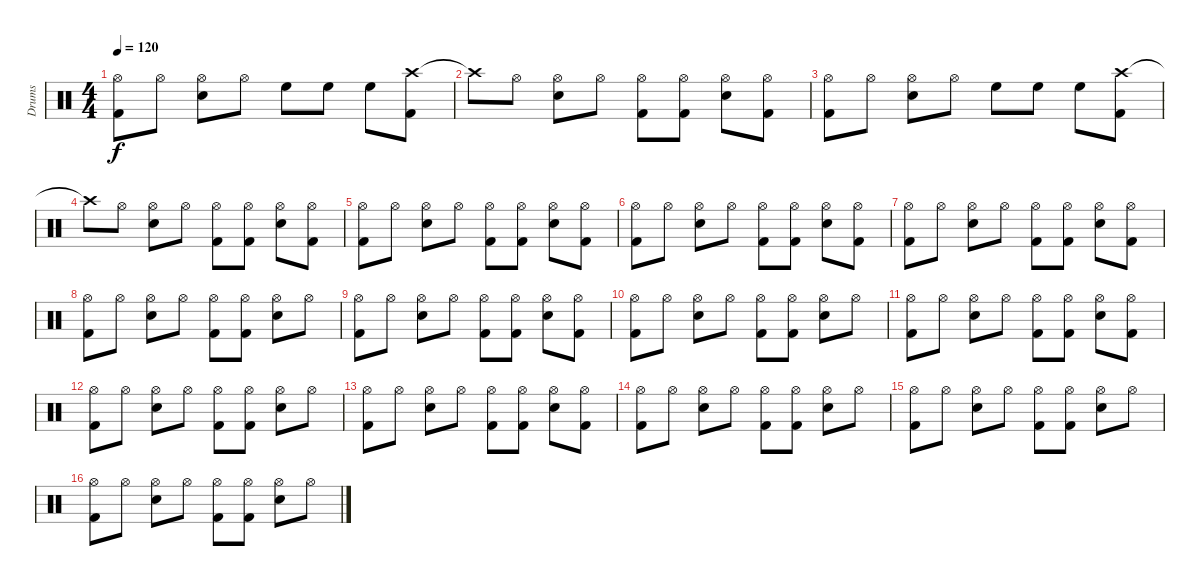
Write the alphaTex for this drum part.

\track ("Drums" "Drums") {instrument percussion}
\staff {score}
\articulation defaults
\ts (4 4)
\tempo 120
\clef neutral
\ks c
("Hi-Hat (open)" "Kick (hit) 2").8{dy f} "Hi-Hat (open)".8 ("Hi-Hat (open)" "Snare (hit) 2").8 "Hi-Hat (open)".8 "High Floor Tom (hit)".8 "High Floor Tom (hit)".8 "High Floor Tom (hit)".8 ("Crash high (hit)" "Kick (hit) 2").8 |
"Crash high (hit)"{t}.8 "Hi-Hat (open)".8 ("Hi-Hat (open)" "Snare (hit) 2").8 "Hi-Hat (open)".8 ("Hi-Hat (open)" "Kick (hit) 2").8 ("Hi-Hat (open)" "Kick (hit) 2").8 ("Hi-Hat (open)" "Snare (hit) 2").8 ("Hi-Hat (open)" "Kick (hit) 2").8 |
("Hi-Hat (open)" "Kick (hit) 2").8 "Hi-Hat (open)".8 ("Hi-Hat (open)" "Snare (hit) 2").8 "Hi-Hat (open)".8 "High Floor Tom (hit)".8 "High Floor Tom (hit)".8 "High Floor Tom (hit)".8 ("Crash high (hit)" "Kick (hit) 2").8 |
"Crash high (hit)"{t}.8 "Hi-Hat (open)".8 ("Hi-Hat (open)" "Snare (hit) 2").8 "Hi-Hat (open)".8 ("Hi-Hat (open)" "Kick (hit) 2").8 ("Hi-Hat (open)" "Kick (hit) 2").8 ("Hi-Hat (open)" "Snare (hit) 2").8 ("Hi-Hat (open)" "Kick (hit) 2").8 |
("Hi-Hat (open)" "Kick (hit) 2").8 "Hi-Hat (open)".8 ("Hi-Hat (open)" "Snare (hit) 2").8 "Hi-Hat (open)".8 ("Hi-Hat (open)" "Kick (hit) 2").8 ("Hi-Hat (open)" "Kick (hit) 2").8 ("Hi-Hat (open)" "Snare (hit) 2").8 ("Hi-Hat (open)" "Kick (hit) 2").8 |
("Hi-Hat (open)" "Kick (hit) 2").8 "Hi-Hat (open)".8 ("Hi-Hat (open)" "Snare (hit) 2").8 "Hi-Hat (open)".8 ("Hi-Hat (open)" "Kick (hit) 2").8 ("Hi-Hat (open)" "Kick (hit) 2").8 ("Hi-Hat (open)" "Snare (hit) 2").8 ("Hi-Hat (open)" "Kick (hit) 2").8 |
("Hi-Hat (open)" "Kick (hit) 2").8 "Hi-Hat (open)".8 ("Hi-Hat (open)" "Snare (hit) 2").8 "Hi-Hat (open)".8 ("Hi-Hat (open)" "Kick (hit) 2").8 ("Hi-Hat (open)" "Kick (hit) 2").8 ("Hi-Hat (open)" "Snare (hit) 2").8 ("Hi-Hat (open)" "Kick (hit) 2").8 |
("Hi-Hat (open)" "Kick (hit) 2").8 "Hi-Hat (open)".8 ("Hi-Hat (open)" "Snare (hit) 2").8 "Hi-Hat (open)".8 ("Hi-Hat (open)" "Kick (hit) 2").8 ("Hi-Hat (open)" "Kick (hit) 2").8 ("Hi-Hat (open)" "Snare (hit) 2").8 "Hi-Hat (open)".8 |
("Hi-Hat (open)" "Kick (hit) 2").8 "Hi-Hat (open)".8 ("Hi-Hat (open)" "Snare (hit) 2").8 "Hi-Hat (open)".8 ("Hi-Hat (open)" "Kick (hit) 2").8 ("Hi-Hat (open)" "Kick (hit) 2").8 ("Hi-Hat (open)" "Snare (hit) 2").8 ("Hi-Hat (open)" "Kick (hit) 2").8 |
("Hi-Hat (open)" "Kick (hit) 2").8 "Hi-Hat (open)".8 ("Hi-Hat (open)" "Snare (hit) 2").8 "Hi-Hat (open)".8 ("Hi-Hat (open)" "Kick (hit) 2").8 ("Hi-Hat (open)" "Kick (hit) 2").8 ("Hi-Hat (open)" "Snare (hit) 2").8 "Hi-Hat (open)".8 |
("Hi-Hat (open)" "Kick (hit) 2").8 "Hi-Hat (open)".8 ("Hi-Hat (open)" "Snare (hit) 2").8 "Hi-Hat (open)".8 ("Hi-Hat (open)" "Kick (hit) 2").8 ("Hi-Hat (open)" "Kick (hit) 2").8 ("Hi-Hat (open)" "Snare (hit) 2").8 ("Hi-Hat (open)" "Kick (hit) 2").8 |
("Hi-Hat (open)" "Kick (hit) 2").8 "Hi-Hat (open)".8 ("Hi-Hat (open)" "Snare (hit) 2").8 "Hi-Hat (open)".8 ("Hi-Hat (open)" "Kick (hit) 2").8 ("Hi-Hat (open)" "Kick (hit) 2").8 ("Hi-Hat (open)" "Snare (hit) 2").8 "Hi-Hat (open)".8 |
("Hi-Hat (open)" "Kick (hit) 2").8 "Hi-Hat (open)".8 ("Hi-Hat (open)" "Snare (hit) 2").8 "Hi-Hat (open)".8 ("Hi-Hat (open)" "Kick (hit) 2").8 ("Hi-Hat (open)" "Kick (hit) 2").8 ("Hi-Hat (open)" "Snare (hit) 2").8 ("Hi-Hat (open)" "Kick (hit) 2").8 |
("Hi-Hat (open)" "Kick (hit) 2").8 "Hi-Hat (open)".8 ("Hi-Hat (open)" "Snare (hit) 2").8 "Hi-Hat (open)".8 ("Hi-Hat (open)" "Kick (hit) 2").8 ("Hi-Hat (open)" "Kick (hit) 2").8 ("Hi-Hat (open)" "Snare (hit) 2").8 "Hi-Hat (open)".8 |
("Hi-Hat (open)" "Kick (hit) 2").8 "Hi-Hat (open)".8 ("Hi-Hat (open)" "Snare (hit) 2").8 "Hi-Hat (open)".8 ("Hi-Hat (open)" "Kick (hit) 2").8 ("Hi-Hat (open)" "Kick (hit) 2").8 ("Hi-Hat (open)" "Snare (hit) 2").8 "Hi-Hat (open)".8 |
("Hi-Hat (open)" "Kick (hit) 2").8 "Hi-Hat (open)".8 ("Hi-Hat (open)" "Snare (hit) 2").8 "Hi-Hat (open)".8 ("Hi-Hat (open)" "Kick (hit) 2").8 ("Hi-Hat (open)" "Kick (hit) 2").8 ("Hi-Hat (open)" "Snare (hit) 2").8 "Hi-Hat (open)".8
